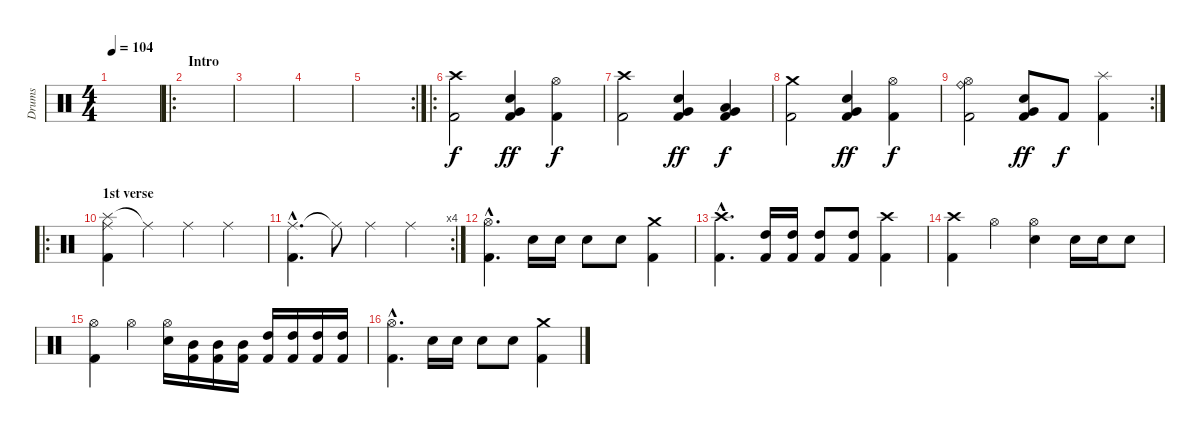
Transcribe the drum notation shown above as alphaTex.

\track ("Drums" "Drums") {instrument percussion}
\staff {score}
\articulation defaults
\ts (4 4)
\tempo 104
\clef neutral
\ks c
|
\ro
\section ("" "Intro")
|
|
|
\rc 2
|
\ro
("Crash high (hit)" "Kick (hit) 2").2 ("Snare (hit) 2" "Very Low Tom (hit)" "Kick (hit) 2").4{dy ff} ("Hi-Hat (open)" "Kick (hit) 2").4{dy f} |
("Crash high (hit)" "Kick (hit) 2").2 ("Snare (hit) 2" "Very Low Tom (hit)" "Kick (hit) 2").4{dy ff} ("Low Tom (hit)" "Very Low Tom (hit)" "Kick (hit) 2").4{dy f} |
("Crash medium (hit)" "Kick (hit) 2").2 ("Snare (hit) 2" "Very Low Tom (hit)" "Kick (hit) 2").4{dy ff} ("Hi-Hat (open)" "Kick (hit) 2").4{dy f} |
\rc 2
("Hi-Hat (open)" "Ride (bell)" "Kick (hit) 2").2 ("Snare (hit) 2" "Very Low Tom (hit)" "Kick (hit) 2").8{dy ff} "Kick (hit) 2".8{dy f} ("Splash (hit)" "Kick (hit) 2").4 |
\ro
\section ("" "1st verse")
("Splash (hit)" "Ride (middle)" "Kick (hit) 2").4 "Ride (middle)"{t}.4 "Ride (middle)".4 "Ride (middle)".4 |
\rc 4
("Ride (middle)"{hac} "Kick (hit) 2"{hac}).4{d} "Ride (middle)"{t}.8 "Ride (middle)".4 "Ride (middle)".4 |
("Hi-Hat (open)"{hac} "Kick (hit) 2"{hac}).4{d} "Snare (hit) 2".16 "Snare (hit) 2".16 "Snare (hit) 2".8 "Snare (hit) 2".8 ("Crash medium (hit)" "Kick (hit) 2").4 |
("Crash high (hit)"{hac} "Kick (hit) 2"{hac}).4{d} ("High Tom (hit)" "Kick (hit) 2").16 ("High Tom (hit)" "Kick (hit) 2").16 ("High Tom (hit)" "Kick (hit) 2").8 ("High Tom (hit)" "Kick (hit) 2").8 ("Crash high (hit)" "Kick (hit) 2").4 |
("Crash high (hit)" "Kick (hit) 2").4 "Hi-Hat (open)".4 ("Hi-Hat (open)" "Snare (hit) 2").4 "Snare (hit) 2".16 "Snare (hit) 2".16 "Snare (hit) 2".8 |
("Hi-Hat (open)" "Kick (hit) 2").4 "Hi-Hat (open)".4 ("Hi-Hat (open)" "Snare (hit) 2").16 ("Mid Tom (hit)" "Kick (hit) 2").16 ("Mid Tom (hit)" "Kick (hit) 2").16 ("Mid Tom (hit)" "Kick (hit) 2").16 ("High Tom (hit)" "Kick (hit) 2").16 ("High Tom (hit)" "Kick (hit) 2").16 ("High Tom (hit)" "Kick (hit) 2").16 ("High Tom (hit)" "Kick (hit) 2").16 |
("Hi-Hat (open)"{hac} "Kick (hit) 2"{hac}).4{d} "Snare (hit) 2".16 "Snare (hit) 2".16 "Snare (hit) 2".8 "Snare (hit) 2".8 ("Crash medium (hit)" "Kick (hit) 2").4
